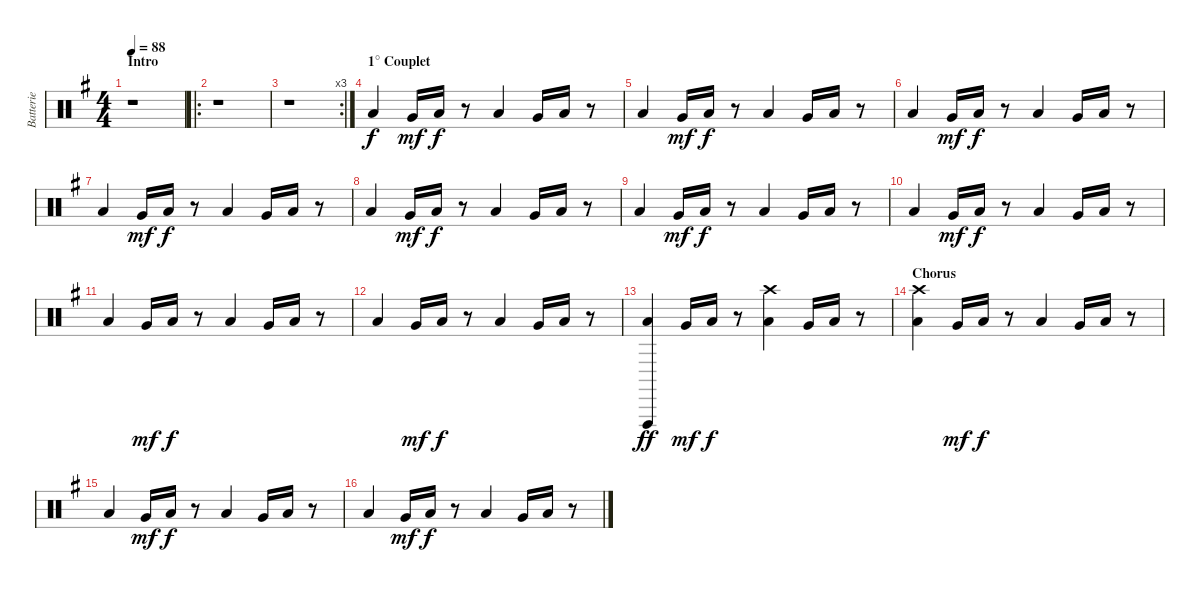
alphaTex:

\track ("Batterie" "Batterie") {instrument percussion}
\staff {score}
\articulation defaults
\ts (4 4)
\section ("" "Intro")
\tempo 88
\clef neutral
\ks g
r.1{dy f} |
\ro
r.1 |
\rc 3
r.1 |
\section ("" "1° Couplet")
"Low Floor Tom (hit)".4 "Very Low Tom (hit)".16{dy mf} "Low Floor Tom (hit)".16{dy f} r.8 "Low Floor Tom (hit)".4 "Very Low Tom (hit)".16 "Low Floor Tom (hit)".16 r.8 |
"Low Floor Tom (hit)".4 "Very Low Tom (hit)".16{dy mf} "Low Floor Tom (hit)".16{dy f} r.8 "Low Floor Tom (hit)".4 "Very Low Tom (hit)".16 "Low Floor Tom (hit)".16 r.8 |
"Low Floor Tom (hit)".4 "Very Low Tom (hit)".16{dy mf} "Low Floor Tom (hit)".16{dy f} r.8 "Low Floor Tom (hit)".4 "Very Low Tom (hit)".16 "Low Floor Tom (hit)".16 r.8 |
"Low Floor Tom (hit)".4 "Very Low Tom (hit)".16{dy mf} "Low Floor Tom (hit)".16{dy f} r.8 "Low Floor Tom (hit)".4 "Very Low Tom (hit)".16 "Low Floor Tom (hit)".16 r.8 |
"Low Floor Tom (hit)".4 "Very Low Tom (hit)".16{dy mf} "Low Floor Tom (hit)".16{dy f} r.8 "Low Floor Tom (hit)".4 "Very Low Tom (hit)".16 "Low Floor Tom (hit)".16 r.8 |
"Low Floor Tom (hit)".4 "Very Low Tom (hit)".16{dy mf} "Low Floor Tom (hit)".16{dy f} r.8 "Low Floor Tom (hit)".4 "Very Low Tom (hit)".16 "Low Floor Tom (hit)".16 r.8 |
"Low Floor Tom (hit)".4 "Very Low Tom (hit)".16{dy mf} "Low Floor Tom (hit)".16{dy f} r.8 "Low Floor Tom (hit)".4 "Very Low Tom (hit)".16 "Low Floor Tom (hit)".16 r.8 |
"Low Floor Tom (hit)".4 "Very Low Tom (hit)".16{dy mf} "Low Floor Tom (hit)".16{dy f} r.8 "Low Floor Tom (hit)".4 "Very Low Tom (hit)".16 "Low Floor Tom (hit)".16 r.8 |
"Low Floor Tom (hit)".4 "Very Low Tom (hit)".16{dy mf} "Low Floor Tom (hit)".16{dy f} r.8 "Low Floor Tom (hit)".4 "Very Low Tom (hit)".16 "Low Floor Tom (hit)".16 r.8 |
("Low Floor Tom (hit)" "Vibraslap (hit)").4{dy ff} "Very Low Tom (hit)".16{dy mf} "Low Floor Tom (hit)".16{dy f} r.8 ("Low Floor Tom (hit)" "Crash high (hit)").4 "Very Low Tom (hit)".16 "Low Floor Tom (hit)".16 r.8 |
\section ("" "Chorus")
("Low Floor Tom (hit)" "Crash high (hit)").4 "Very Low Tom (hit)".16{dy mf} "Low Floor Tom (hit)".16{dy f} r.8 "Low Floor Tom (hit)".4 "Very Low Tom (hit)".16 "Low Floor Tom (hit)".16 r.8 |
"Low Floor Tom (hit)".4 "Very Low Tom (hit)".16{dy mf} "Low Floor Tom (hit)".16{dy f} r.8 "Low Floor Tom (hit)".4 "Very Low Tom (hit)".16 "Low Floor Tom (hit)".16 r.8 |
"Low Floor Tom (hit)".4 "Very Low Tom (hit)".16{dy mf} "Low Floor Tom (hit)".16{dy f} r.8 "Low Floor Tom (hit)".4 "Very Low Tom (hit)".16 "Low Floor Tom (hit)".16 r.8
